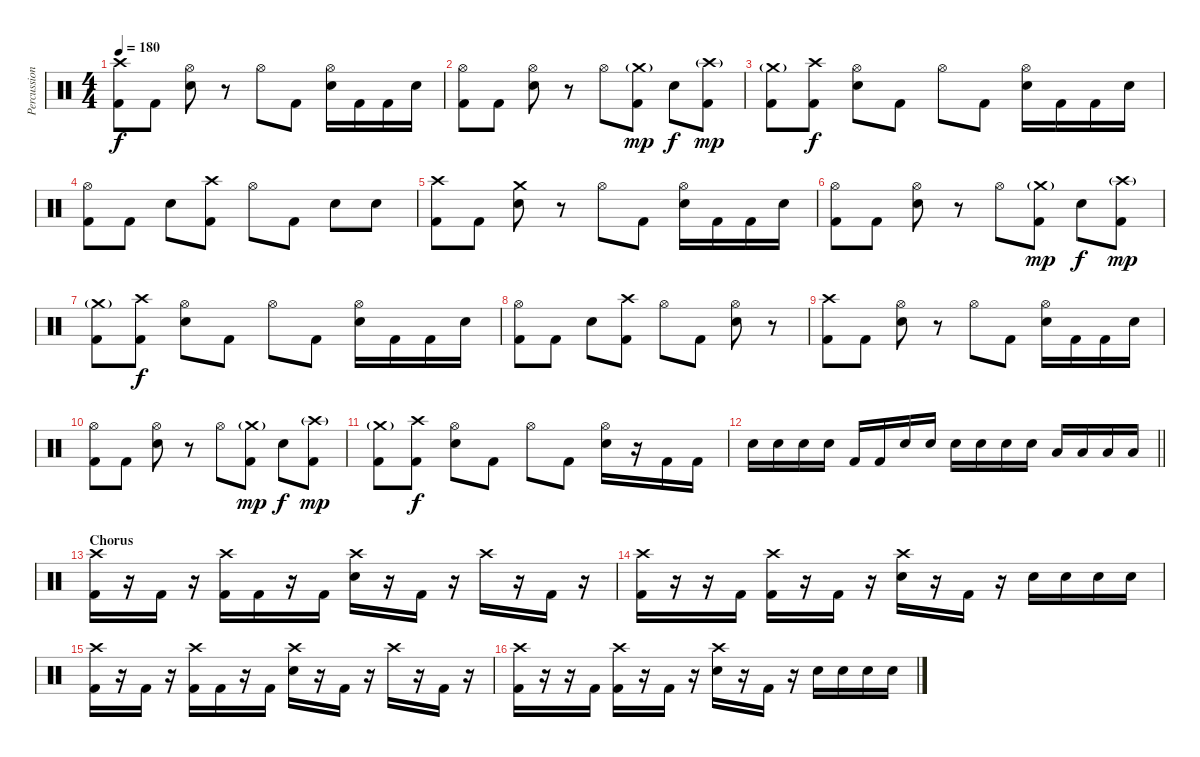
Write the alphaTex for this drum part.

\track ("Percussion" "Percussion") {instrument percussion}
\staff {score}
\articulation defaults
\ts (4 4)
\tempo 180
\clef neutral
\ks c
("Crash high (hit)" "Kick (hit) 2").8{dy f} "Kick (hit) 2".8 ("Hi-Hat (open)" "Electric Snare (hit)").8 r.8 "Hi-Hat (open)".8 "Kick (hit) 2".8 ("Hi-Hat (open)" "Electric Snare (hit)").16 "Kick (hit) 2".16 "Kick (hit) 2".16 "Electric Snare (hit)".16 |
("Hi-Hat (open)" "Kick (hit) 2").8 "Kick (hit) 2".8 ("Hi-Hat (open)" "Electric Snare (hit)").8 r.8 "Hi-Hat (open)".8 ("Crash medium (hit)"{g} "Kick (hit) 2").8{dy mp} "Electric Snare (hit)".8{dy f} ("Crash high (hit)"{g} "Kick (hit) 2").8{dy mp} |
("Crash medium (hit)"{g} "Kick (hit) 2").8 ("Crash high (hit)" "Kick (hit) 2").8{dy f} ("Hi-Hat (open)" "Electric Snare (hit)").8 "Kick (hit) 2".8 "Hi-Hat (open)".8 "Kick (hit) 2".8 ("Hi-Hat (open)" "Electric Snare (hit)").16 "Kick (hit) 2".16 "Kick (hit) 2".16 "Electric Snare (hit)".16 |
("Hi-Hat (open)" "Kick (hit) 2").8 "Kick (hit) 2".8 "Electric Snare (hit)".8 ("Crash high (hit)" "Kick (hit) 2").8 "Hi-Hat (open)".8 "Kick (hit) 2".8 "Electric Snare (hit)".8 "Electric Snare (hit)".8 |
("Crash high (hit)" "Kick (hit) 2").8 "Kick (hit) 2".8 ("Crash medium (hit)" "Electric Snare (hit)").8 r.8 "Hi-Hat (open)".8 "Kick (hit) 2".8 ("Hi-Hat (open)" "Electric Snare (hit)").16 "Kick (hit) 2".16 "Kick (hit) 2".16 "Electric Snare (hit)".16 |
("Hi-Hat (open)" "Kick (hit) 2").8 "Kick (hit) 2".8 ("Hi-Hat (open)" "Electric Snare (hit)").8 r.8 "Hi-Hat (open)".8 ("Crash medium (hit)"{g} "Kick (hit) 2").8{dy mp} "Electric Snare (hit)".8{dy f} ("Crash high (hit)"{g} "Kick (hit) 2").8{dy mp} |
("Crash medium (hit)"{g} "Kick (hit) 2").8 ("Crash high (hit)" "Kick (hit) 2").8{dy f} ("Hi-Hat (open)" "Electric Snare (hit)").8 "Kick (hit) 2".8 "Hi-Hat (open)".8 "Kick (hit) 2".8 ("Hi-Hat (open)" "Electric Snare (hit)").16 "Kick (hit) 2".16 "Kick (hit) 2".16 "Electric Snare (hit)".16 |
("Hi-Hat (open)" "Kick (hit) 2").8 "Kick (hit) 2".8 "Electric Snare (hit)".8 ("Crash high (hit)" "Kick (hit) 2").8 "Hi-Hat (open)".8 "Kick (hit) 2".8 ("Hi-Hat (open)" "Electric Snare (hit)").8 r.8 |
("Crash high (hit)" "Kick (hit) 2").8 "Kick (hit) 2".8 ("Hi-Hat (open)" "Electric Snare (hit)").8 r.8 "Hi-Hat (open)".8 "Kick (hit) 2".8 ("Hi-Hat (open)" "Electric Snare (hit)").16 "Kick (hit) 2".16 "Kick (hit) 2".16 "Electric Snare (hit)".16 |
("Hi-Hat (open)" "Kick (hit) 2").8 "Kick (hit) 2".8 ("Hi-Hat (open)" "Electric Snare (hit)").8 r.8 "Hi-Hat (open)".8 ("Crash medium (hit)"{g} "Kick (hit) 2").8{dy mp} "Electric Snare (hit)".8{dy f} ("Crash high (hit)"{g} "Kick (hit) 2").8{dy mp} |
("Crash medium (hit)"{g} "Kick (hit) 2").8 ("Crash high (hit)" "Kick (hit) 2").8{dy f} ("Hi-Hat (open)" "Electric Snare (hit)").8 "Kick (hit) 2".8 "Hi-Hat (open)".8 "Kick (hit) 2".8 ("Hi-Hat (open)" "Electric Snare (hit)").16 r.16 "Kick (hit) 2".16 "Kick (hit) 2".16 |
\barLineRight lightlight "Electric Snare (hit)".16 "Electric Snare (hit)".16 "Electric Snare (hit)".16 "Electric Snare (hit)".16 "Kick (hit) 2".16 "Kick (hit) 2".16 "Electric Snare (hit)".16 "Electric Snare (hit)".16 "Electric Snare (hit)".16 "Electric Snare (hit)".16 "Electric Snare (hit)".16 "Electric Snare (hit)".16 "Low Tom (hit)".16 "Low Tom (hit)".16 "Low Tom (hit)".16 "Low Tom (hit)".16
|
\section ("" "Chorus")
("Crash high (hit)" "Kick (hit) 2").16 r.16 "Kick (hit) 2".16 r.16 ("Crash high (hit)" "Kick (hit) 2").16 "Kick (hit) 2".16 r.16 "Kick (hit) 2".16 ("Crash high (hit)" "Electric Snare (hit)").16 r.16 "Kick (hit) 2".16 r.16 "Crash high (hit)".16 r.16 "Kick (hit) 2".16 r.16 |
("Crash high (hit)" "Kick (hit) 2").16 r.16 r.16 "Kick (hit) 2".16 ("Crash high (hit)" "Kick (hit) 2").16 r.16 "Kick (hit) 2".16 r.16 ("Crash high (hit)" "Electric Snare (hit)").16 r.16 "Kick (hit) 2".16 r.16 "Electric Snare (hit)".16 "Electric Snare (hit)".16 "Electric Snare (hit)".16 "Electric Snare (hit)".16 |
("Crash high (hit)" "Kick (hit) 2").16 r.16 "Kick (hit) 2".16 r.16 ("Crash high (hit)" "Kick (hit) 2").16 "Kick (hit) 2".16 r.16 "Kick (hit) 2".16 ("Crash high (hit)" "Electric Snare (hit)").16 r.16 "Kick (hit) 2".16 r.16 "Crash high (hit)".16 r.16 "Kick (hit) 2".16 r.16 |
("Crash high (hit)" "Kick (hit) 2").16 r.16 r.16 "Kick (hit) 2".16 ("Crash high (hit)" "Kick (hit) 2").16 r.16 "Kick (hit) 2".16 r.16 ("Crash high (hit)" "Electric Snare (hit)").16 r.16 "Kick (hit) 2".16 r.16 "Electric Snare (hit)".16 "Electric Snare (hit)".16 "Electric Snare (hit)".16 "Electric Snare (hit)".16
